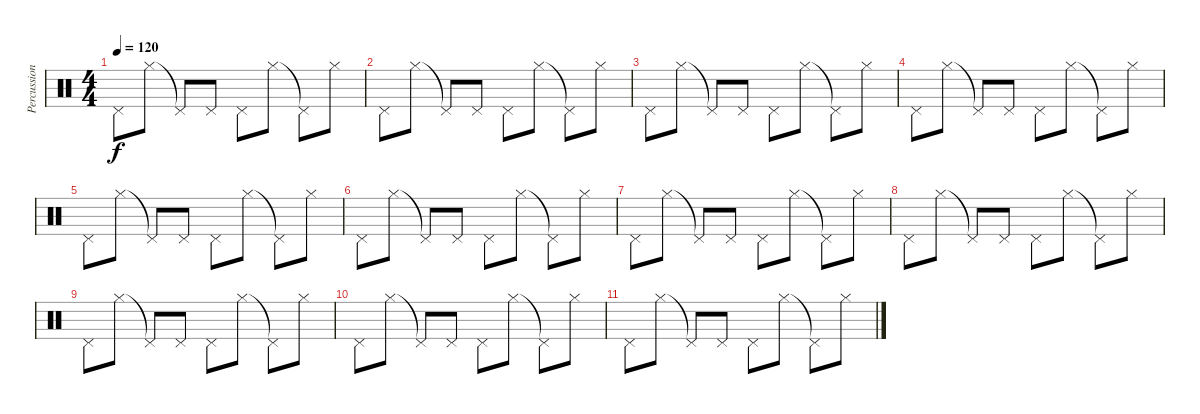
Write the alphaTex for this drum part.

\track ("Percussions" "Percussion") {instrument percussion}
\staff {score}
\articulation defaults
\ts (4 4)
\tempo 120
\clef neutral
\ks c "Pedal Hi-Hat (hit)".8{dy f} "Hi-Hat (closed)".8 "Pedal Hi-Hat (hit)"{t}.8 "Pedal Hi-Hat (hit)".8 "Pedal Hi-Hat (hit)".8 "Hi-Hat (closed)".8 "Pedal Hi-Hat (hit)"{t}.8 "Hi-Hat (closed)".8
|
"Pedal Hi-Hat (hit)".8 "Hi-Hat (closed)".8 "Pedal Hi-Hat (hit)"{t}.8 "Pedal Hi-Hat (hit)".8 "Pedal Hi-Hat (hit)".8 "Hi-Hat (closed)".8 "Pedal Hi-Hat (hit)"{t}.8 "Hi-Hat (closed)".8 |
"Pedal Hi-Hat (hit)".8 "Hi-Hat (closed)".8 "Pedal Hi-Hat (hit)"{t}.8 "Pedal Hi-Hat (hit)".8 "Pedal Hi-Hat (hit)".8 "Hi-Hat (closed)".8 "Pedal Hi-Hat (hit)"{t}.8 "Hi-Hat (closed)".8 |
"Pedal Hi-Hat (hit)".8 "Hi-Hat (closed)".8 "Pedal Hi-Hat (hit)"{t}.8 "Pedal Hi-Hat (hit)".8 "Pedal Hi-Hat (hit)".8 "Hi-Hat (closed)".8 "Pedal Hi-Hat (hit)"{t}.8 "Hi-Hat (closed)".8 |
"Pedal Hi-Hat (hit)".8 "Hi-Hat (closed)".8 "Pedal Hi-Hat (hit)"{t}.8 "Pedal Hi-Hat (hit)".8 "Pedal Hi-Hat (hit)".8 "Hi-Hat (closed)".8 "Pedal Hi-Hat (hit)"{t}.8 "Hi-Hat (closed)".8 |
"Pedal Hi-Hat (hit)".8 "Hi-Hat (closed)".8 "Pedal Hi-Hat (hit)"{t}.8 "Pedal Hi-Hat (hit)".8 "Pedal Hi-Hat (hit)".8 "Hi-Hat (closed)".8 "Pedal Hi-Hat (hit)"{t}.8 "Hi-Hat (closed)".8 |
"Pedal Hi-Hat (hit)".8 "Hi-Hat (closed)".8 "Pedal Hi-Hat (hit)"{t}.8 "Pedal Hi-Hat (hit)".8 "Pedal Hi-Hat (hit)".8 "Hi-Hat (closed)".8 "Pedal Hi-Hat (hit)"{t}.8 "Hi-Hat (closed)".8 |
"Pedal Hi-Hat (hit)".8 "Hi-Hat (closed)".8 "Pedal Hi-Hat (hit)"{t}.8 "Pedal Hi-Hat (hit)".8 "Pedal Hi-Hat (hit)".8 "Hi-Hat (closed)".8 "Pedal Hi-Hat (hit)"{t}.8 "Hi-Hat (closed)".8 |
"Pedal Hi-Hat (hit)".8 "Hi-Hat (closed)".8 "Pedal Hi-Hat (hit)"{t}.8 "Pedal Hi-Hat (hit)".8 "Pedal Hi-Hat (hit)".8 "Hi-Hat (closed)".8 "Pedal Hi-Hat (hit)"{t}.8 "Hi-Hat (closed)".8 |
"Pedal Hi-Hat (hit)".8 "Hi-Hat (closed)".8 "Pedal Hi-Hat (hit)"{t}.8 "Pedal Hi-Hat (hit)".8 "Pedal Hi-Hat (hit)".8 "Hi-Hat (closed)".8 "Pedal Hi-Hat (hit)"{t}.8 "Hi-Hat (closed)".8 |
"Pedal Hi-Hat (hit)".8 "Hi-Hat (closed)".8 "Pedal Hi-Hat (hit)"{t}.8 "Pedal Hi-Hat (hit)".8 "Pedal Hi-Hat (hit)".8 "Hi-Hat (closed)".8 "Pedal Hi-Hat (hit)"{t}.8 "Hi-Hat (closed)".8
